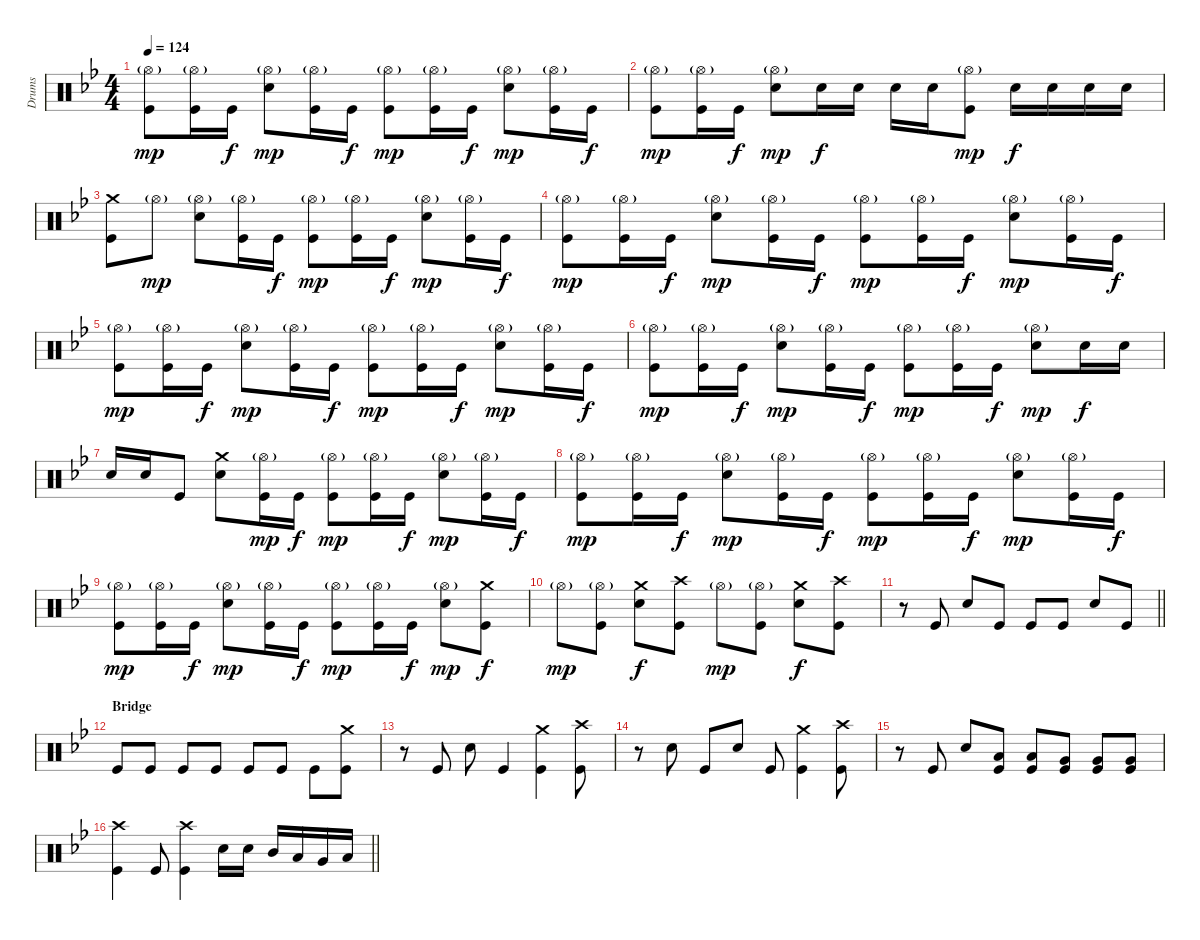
\track ("Drums" "Drums") {instrument percussion}
\staff {score}
\articulation defaults
\ts (4 4)
\tempo 124
\clef neutral
\ks gminor
("Hi-Hat (open)"{g} "Kick (hit)").8{dy mp} ("Hi-Hat (open)"{g} "Kick (hit)").16 "Kick (hit)".16{dy f} ("Hi-Hat (open)"{g} "Snare (hit) 2").8{dy mp} ("Hi-Hat (open)"{g} "Kick (hit)").16 "Kick (hit)".16{dy f} ("Hi-Hat (open)"{g} "Kick (hit)").8{dy mp} ("Hi-Hat (open)"{g} "Kick (hit)").16 "Kick (hit)".16{dy f} ("Hi-Hat (open)"{g} "Snare (hit) 2").8{dy mp} ("Hi-Hat (open)"{g} "Kick (hit)").16 "Kick (hit)".16{dy f} |
("Hi-Hat (open)"{g} "Kick (hit)").8{dy mp} ("Hi-Hat (open)"{g} "Kick (hit)").16 "Kick (hit)".16{dy f} ("Hi-Hat (open)"{g} "Snare (hit) 2").8{dy mp} "Snare (hit) 2".16{dy f} "Snare (hit) 2".16 "Snare (hit) 2".16 "Snare (hit) 2".16 ("Hi-Hat (open)"{g} "Kick (hit)").8{dy mp} "Snare (hit) 2".16{dy f} "Snare (hit) 2".16 "Snare (hit) 2".16 "Snare (hit) 2".16 |
("Crash medium (hit)" "Kick (hit)").8 "Hi-Hat (open)"{g}.8{dy mp} ("Hi-Hat (open)"{g} "Snare (hit) 2").8 ("Hi-Hat (open)"{g} "Kick (hit)").16 "Kick (hit)".16{dy f} ("Hi-Hat (open)"{g} "Kick (hit)").8{dy mp} ("Hi-Hat (open)"{g} "Kick (hit)").16 "Kick (hit)".16{dy f} ("Hi-Hat (open)"{g} "Snare (hit) 2").8{dy mp} ("Hi-Hat (open)"{g} "Kick (hit)").16 "Kick (hit)".16{dy f} |
("Hi-Hat (open)"{g} "Kick (hit)").8{dy mp} ("Hi-Hat (open)"{g} "Kick (hit)").16 "Kick (hit)".16{dy f} ("Hi-Hat (open)"{g} "Snare (hit) 2").8{dy mp} ("Hi-Hat (open)"{g} "Kick (hit)").16 "Kick (hit)".16{dy f} ("Hi-Hat (open)"{g} "Kick (hit)").8{dy mp} ("Hi-Hat (open)"{g} "Kick (hit)").16 "Kick (hit)".16{dy f} ("Hi-Hat (open)"{g} "Snare (hit) 2").8{dy mp} ("Hi-Hat (open)"{g} "Kick (hit)").16 "Kick (hit)".16{dy f} |
("Hi-Hat (open)"{g} "Kick (hit)").8{dy mp} ("Hi-Hat (open)"{g} "Kick (hit)").16 "Kick (hit)".16{dy f} ("Hi-Hat (open)"{g} "Snare (hit) 2").8{dy mp} ("Hi-Hat (open)"{g} "Kick (hit)").16 "Kick (hit)".16{dy f} ("Hi-Hat (open)"{g} "Kick (hit)").8{dy mp} ("Hi-Hat (open)"{g} "Kick (hit)").16 "Kick (hit)".16{dy f} ("Hi-Hat (open)"{g} "Snare (hit) 2").8{dy mp} ("Hi-Hat (open)"{g} "Kick (hit)").16 "Kick (hit)".16{dy f} |
("Hi-Hat (open)"{g} "Kick (hit)").8{dy mp} ("Hi-Hat (open)"{g} "Kick (hit)").16 "Kick (hit)".16{dy f} ("Hi-Hat (open)"{g} "Snare (hit) 2").8{dy mp} ("Hi-Hat (open)"{g} "Kick (hit)").16 "Kick (hit)".16{dy f} ("Hi-Hat (open)"{g} "Kick (hit)").8{dy mp} ("Hi-Hat (open)"{g} "Kick (hit)").16 "Kick (hit)".16{dy f} ("Hi-Hat (open)"{g} "Snare (hit) 2").8{dy mp} "Snare (hit) 2".16{dy f} "Snare (hit) 2".16 |
"Snare (hit) 2".16 "Snare (hit) 2".16 "Kick (hit)".8 ("Crash medium (hit)" "Snare (hit) 2").8 ("Hi-Hat (open)"{g} "Kick (hit)").16{dy mp} "Kick (hit)".16{dy f} ("Hi-Hat (open)"{g} "Kick (hit)").8{dy mp} ("Hi-Hat (open)"{g} "Kick (hit)").16 "Kick (hit)".16{dy f} ("Hi-Hat (open)"{g} "Snare (hit) 2").8{dy mp} ("Hi-Hat (open)"{g} "Kick (hit)").16 "Kick (hit)".16{dy f} |
("Hi-Hat (open)"{g} "Kick (hit)").8{dy mp} ("Hi-Hat (open)"{g} "Kick (hit)").16 "Kick (hit)".16{dy f} ("Hi-Hat (open)"{g} "Snare (hit) 2").8{dy mp} ("Hi-Hat (open)"{g} "Kick (hit)").16 "Kick (hit)".16{dy f} ("Hi-Hat (open)"{g} "Kick (hit)").8{dy mp} ("Hi-Hat (open)"{g} "Kick (hit)").16 "Kick (hit)".16{dy f} ("Hi-Hat (open)"{g} "Snare (hit) 2").8{dy mp} ("Hi-Hat (open)"{g} "Kick (hit)").16 "Kick (hit)".16{dy f} |
("Hi-Hat (open)"{g} "Kick (hit)").8{dy mp} ("Hi-Hat (open)"{g} "Kick (hit)").16 "Kick (hit)".16{dy f} ("Hi-Hat (open)"{g} "Snare (hit) 2").8{dy mp} ("Hi-Hat (open)"{g} "Kick (hit)").16 "Kick (hit)".16{dy f} ("Hi-Hat (open)"{g} "Kick (hit)").8{dy mp} ("Hi-Hat (open)"{g} "Kick (hit)").16 "Kick (hit)".16{dy f} ("Hi-Hat (open)"{g} "Snare (hit) 2").8{dy mp} ("Crash medium (hit)" "Kick (hit)").8{dy f} |
"Hi-Hat (open)"{g}.8{dy mp} ("Hi-Hat (open)"{g} "Kick (hit)").8 ("Crash medium (hit)" "Snare (hit) 2").8{dy f} ("Crash high (hit)" "Kick (hit)").8 "Hi-Hat (open)"{g}.8{dy mp} ("Hi-Hat (open)"{g} "Kick (hit)").8 ("Crash medium (hit)" "Snare (hit) 2").8{dy f} ("Crash high (hit)" "Kick (hit)").8 |
\barLineRight lightlight
r.8 "Kick (hit)".8 "Snare (hit) 2".8 "Kick (hit)".8 "Kick (hit)".8 "Kick (hit)".8 "Snare (hit) 2".8 "Kick (hit)".8 |
\section ("" "Bridge")
"Kick (hit)".8 "Kick (hit)".8 "Kick (hit)".8 "Kick (hit)".8 "Kick (hit)".8 "Kick (hit)".8 "Kick (hit)".8 ("Crash medium (hit)" "Kick (hit)").8 |
r.8 "Kick (hit)".8 "Snare (hit) 2".8 "Kick (hit)".4 ("Crash medium (hit)" "Kick (hit)").4 ("Crash high (hit)" "Kick (hit)").8 |
r.8 "Snare (hit) 2".8 "Kick (hit)".8 "Snare (hit) 2".8 "Kick (hit)".8 ("Crash medium (hit)" "Kick (hit)").4 ("Crash high (hit)" "Kick (hit)").8 |
r.8 "Kick (hit)".8 "Snare (hit) 2".8 ("Low Floor Tom (hit)" "Kick (hit)").8 ("Low Floor Tom (hit)" "Kick (hit)").8 ("Very Low Tom (hit)" "Kick (hit)").8 ("Very Low Tom (hit)" "Kick (hit)").8 ("Very Low Tom (hit)" "Kick (hit)").8 |
\barLineRight lightlight
("Crash high (hit)" "Kick (hit)").4 "Kick (hit)".8 ("Crash high (hit)" "Kick (hit)").4 "Snare (hit) 2".16 "Snare (hit) 2".16 "Mid Tom (hit)".16 "Low Tom (hit)".16 "Very Low Tom (hit)".16 "Low Floor Tom (hit)".16
